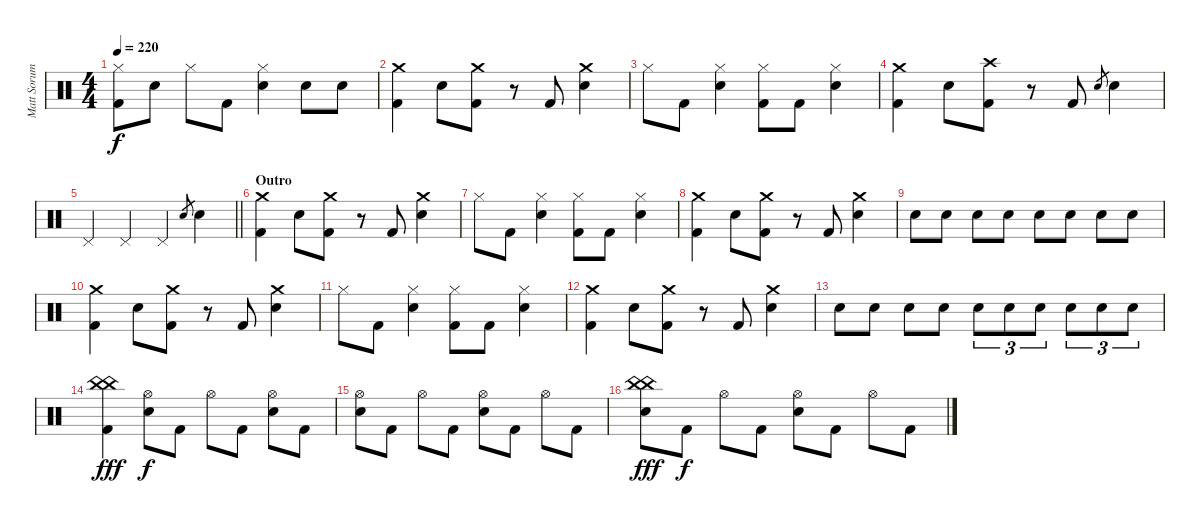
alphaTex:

\track ("Matt Sorum - Drums" "Matt Sorum") {instrument percussion}
\staff {score}
\articulation defaults
\ts (4 4)
\tempo 220
\clef neutral
\ks c
("Hi-Hat (closed)" "Kick (hit) 2").8{dy f} "Snare (hit) 2".8 "Hi-Hat (closed)".8 "Kick (hit) 2".8 ("Hi-Hat (closed)" "Snare (hit) 2").4 "Snare (hit) 2".8 "Snare (hit) 2".8 |
("Crash medium (hit)" "Kick (hit) 2").4 "Snare (hit) 2".8 ("Crash medium (hit)" "Kick (hit) 2").8 r.8 "Kick (hit) 2".8 ("Crash medium (hit)" "Snare (hit) 2").4 |
"Hi-Hat (closed)".8 "Kick (hit) 2".8 ("Hi-Hat (closed)" "Snare (hit) 2").4 ("Hi-Hat (closed)" "Kick (hit) 2").8 "Kick (hit) 2".8 ("Hi-Hat (closed)" "Snare (hit) 2").4 |
("Crash medium (hit)" "Kick (hit) 2").4 "Snare (hit) 2".8 ("Crash high (hit)" "Kick (hit) 2").8 r.8 "Kick (hit) 2".8 "Snare (hit) 2".8{gr} "Snare (hit) 2".4 |
\barLineRight lightlight "Pedal Hi-Hat (hit)".4 "Pedal Hi-Hat (hit)".4 "Pedal Hi-Hat (hit)".4 "Snare (hit) 2".8{gr} "Snare (hit) 2".4
|
\section ("" "Outro")
("Crash medium (hit)" "Kick (hit) 2").4 "Snare (hit) 2".8 ("Crash medium (hit)" "Kick (hit) 2").8 r.8 "Kick (hit) 2".8 ("Crash medium (hit)" "Snare (hit) 2").4 |
"Hi-Hat (closed)".8 "Kick (hit) 2".8 ("Hi-Hat (closed)" "Snare (hit) 2").4 ("Hi-Hat (closed)" "Kick (hit) 2").8 "Kick (hit) 2".8 ("Hi-Hat (closed)" "Snare (hit) 2").4 |
("Crash medium (hit)" "Kick (hit) 2").4 "Snare (hit) 2".8 ("Crash medium (hit)" "Kick (hit) 2").8 r.8 "Kick (hit) 2".8 ("Crash medium (hit)" "Snare (hit) 2").4 |
"Snare (hit) 2".8 "Snare (hit) 2".8 "Snare (hit) 2".8 "Snare (hit) 2".8 "Snare (hit) 2".8 "Snare (hit) 2".8 "Snare (hit) 2".8 "Snare (hit) 2".8 |
("Crash medium (hit)" "Kick (hit) 2").4 "Snare (hit) 2".8 ("Crash medium (hit)" "Kick (hit) 2").8 r.8 "Kick (hit) 2".8 ("Crash medium (hit)" "Snare (hit) 2").4 |
"Hi-Hat (closed)".8 "Kick (hit) 2".8 ("Hi-Hat (closed)" "Snare (hit) 2").4 ("Hi-Hat (closed)" "Kick (hit) 2").8 "Kick (hit) 2".8 ("Hi-Hat (closed)" "Snare (hit) 2").4 |
("Crash medium (hit)" "Kick (hit) 2").4 "Snare (hit) 2".8 ("Crash medium (hit)" "Kick (hit) 2").8 r.8 "Kick (hit) 2".8 ("Crash medium (hit)" "Snare (hit) 2").4 |
"Snare (hit) 2".8 "Snare (hit) 2".8 "Snare (hit) 2".8 "Snare (hit) 2".8 "Snare (hit) 2".8{tu (3 2)} "Snare (hit) 2".8{tu (3 2)} "Snare (hit) 2".8{tu (3 2)} "Snare (hit) 2".8{tu (3 2)} "Snare (hit) 2".8{tu (3 2)} "Snare (hit) 2".8{tu (3 2)} |
("China (hit)" "China (hit)" "Kick (hit) 2").4{dy fff} ("Hi-Hat (open)" "Snare (hit) 2").8{dy f} "Kick (hit) 2".8 "Hi-Hat (open)".8 "Kick (hit) 2".8 ("Hi-Hat (open)" "Snare (hit) 2").8 "Kick (hit) 2".8 |
("Hi-Hat (open)" "Snare (hit) 2").8 "Kick (hit) 2".8 "Hi-Hat (open)".8 "Kick (hit) 2".8 ("Hi-Hat (open)" "Snare (hit) 2").8 "Kick (hit) 2".8 "Hi-Hat (open)".8 "Kick (hit) 2".8 |
("China (hit)" "China (hit)" "Snare (hit) 2").8{dy fff} "Kick (hit) 2".8{dy f} "Hi-Hat (open)".8 "Kick (hit) 2".8 ("Hi-Hat (open)" "Snare (hit) 2").8 "Kick (hit) 2".8 "Hi-Hat (open)".8 "Kick (hit) 2".8
